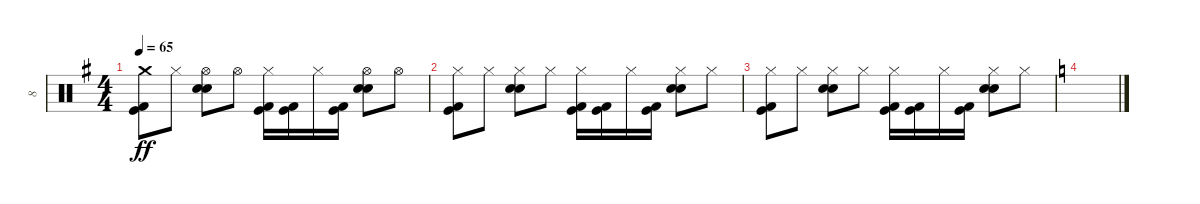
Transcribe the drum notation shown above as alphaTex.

\track ("8" "8") {instrument percussion}
\staff {score}
\articulation defaults
\ts (4 4)
\tempo 65
\clef neutral
\ks eminor
("Crash medium (hit)" "Kick (hit) 2" "Kick (hit)").8{dy ff} "Hi-Hat (closed)".8 ("Hi-Hat (open)" "Snare (hit) 2" "Electric Snare (hit)").8 "Hi-Hat (open)".8 ("Hi-Hat (closed)" "Kick (hit)" "Kick (hit) 2").16 ("Kick (hit)" "Kick (hit) 2").16 "Hi-Hat (closed)".16 ("Kick (hit)" "Kick (hit) 2").16 ("Hi-Hat (open)" "Snare (hit) 2" "Electric Snare (hit)").8 "Hi-Hat (open)".8 |
("Hi-Hat (closed)" "Kick (hit)" "Kick (hit) 2").8 "Hi-Hat (closed)".8 ("Hi-Hat (closed)" "Snare (hit) 2" "Electric Snare (hit)").8 "Hi-Hat (closed)".8 ("Hi-Hat (closed)" "Kick (hit)" "Kick (hit) 2").16 ("Kick (hit)" "Kick (hit) 2").16 "Hi-Hat (closed)".16 ("Kick (hit)" "Kick (hit) 2").16 ("Hi-Hat (closed)" "Snare (hit) 2" "Electric Snare (hit)").8 "Hi-Hat (closed)".8 |
("Hi-Hat (closed)" "Kick (hit)" "Kick (hit) 2").8 "Hi-Hat (closed)".8 ("Hi-Hat (closed)" "Snare (hit) 2" "Electric Snare (hit)").8 "Hi-Hat (closed)".8 ("Hi-Hat (closed)" "Kick (hit)" "Kick (hit) 2").16 ("Kick (hit)" "Kick (hit) 2").16 "Hi-Hat (closed)".16 ("Kick (hit)" "Kick (hit) 2").16 ("Hi-Hat (closed)" "Snare (hit) 2" "Electric Snare (hit)").8 "Hi-Hat (closed)".8 |
\ks c
